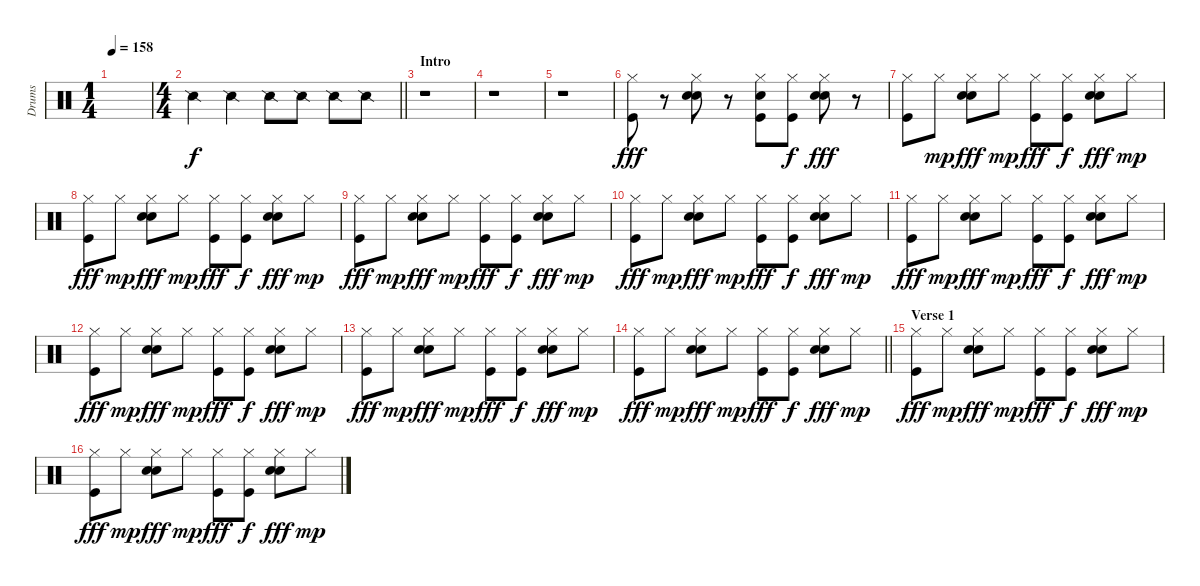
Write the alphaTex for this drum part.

\track ("Drums" "Drums") {instrument percussion}
\staff {score}
\articulation defaults
\ts (1 4)
\tempo 158
\clef neutral
\ks c
|
\ts (4 4)
\barLineRight lightlight "Snare (side stick) 2".4 "Snare (side stick) 2".4 "Snare (side stick) 2".8 "Snare (side stick) 2".8 "Snare (side stick) 2".8 "Snare (side stick) 2".8
|
\section ("" "Intro")
r.1 |
r.1 |
r.1 |
("Hi-Hat (closed)" "Kick (hit)").8{dy fff} r.8 ("Snare (hit) 2" "Hi-Hat (closed)" "Electric Snare (hit)").8 r.8 ("Hi-Hat (closed)" "Kick (hit)" "Electric Snare (hit)").8 ("Hi-Hat (closed)" "Kick (hit)").8{dy f} ("Snare (hit) 2" "Hi-Hat (closed)" "Electric Snare (hit)").8{dy fff} r.8 |
("Hi-Hat (closed)" "Kick (hit)").8 "Hi-Hat (closed)".8{dy mp} ("Snare (hit) 2" "Hi-Hat (closed)" "Electric Snare (hit)").8{dy fff} "Hi-Hat (closed)".8{dy mp} ("Hi-Hat (closed)" "Kick (hit)").8{dy fff} ("Hi-Hat (closed)" "Kick (hit)").8{dy f} ("Snare (hit) 2" "Hi-Hat (closed)" "Electric Snare (hit)").8{dy fff} "Hi-Hat (closed)".8{dy mp} |
("Hi-Hat (closed)" "Kick (hit)").8{dy fff} "Hi-Hat (closed)".8{dy mp} ("Snare (hit) 2" "Hi-Hat (closed)" "Electric Snare (hit)").8{dy fff} "Hi-Hat (closed)".8{dy mp} ("Hi-Hat (closed)" "Kick (hit)").8{dy fff} ("Hi-Hat (closed)" "Kick (hit)").8{dy f} ("Snare (hit) 2" "Hi-Hat (closed)" "Electric Snare (hit)").8{dy fff} "Hi-Hat (closed)".8{dy mp} |
("Hi-Hat (closed)" "Kick (hit)").8{dy fff} "Hi-Hat (closed)".8{dy mp} ("Snare (hit) 2" "Hi-Hat (closed)" "Electric Snare (hit)").8{dy fff} "Hi-Hat (closed)".8{dy mp} ("Hi-Hat (closed)" "Kick (hit)").8{dy fff} ("Hi-Hat (closed)" "Kick (hit)").8{dy f} ("Snare (hit) 2" "Hi-Hat (closed)" "Electric Snare (hit)").8{dy fff} "Hi-Hat (closed)".8{dy mp} |
("Hi-Hat (closed)" "Kick (hit)").8{dy fff} "Hi-Hat (closed)".8{dy mp} ("Snare (hit) 2" "Hi-Hat (closed)" "Electric Snare (hit)").8{dy fff} "Hi-Hat (closed)".8{dy mp} ("Hi-Hat (closed)" "Kick (hit)").8{dy fff} ("Hi-Hat (closed)" "Kick (hit)").8{dy f} ("Snare (hit) 2" "Hi-Hat (closed)" "Electric Snare (hit)").8{dy fff} "Hi-Hat (closed)".8{dy mp} |
("Hi-Hat (closed)" "Kick (hit)").8{dy fff} "Hi-Hat (closed)".8{dy mp} ("Snare (hit) 2" "Hi-Hat (closed)" "Electric Snare (hit)").8{dy fff} "Hi-Hat (closed)".8{dy mp} ("Hi-Hat (closed)" "Kick (hit)").8{dy fff} ("Hi-Hat (closed)" "Kick (hit)").8{dy f} ("Snare (hit) 2" "Hi-Hat (closed)" "Electric Snare (hit)").8{dy fff} "Hi-Hat (closed)".8{dy mp} |
("Hi-Hat (closed)" "Kick (hit)").8{dy fff} "Hi-Hat (closed)".8{dy mp} ("Snare (hit) 2" "Hi-Hat (closed)" "Electric Snare (hit)").8{dy fff} "Hi-Hat (closed)".8{dy mp} ("Hi-Hat (closed)" "Kick (hit)").8{dy fff} ("Hi-Hat (closed)" "Kick (hit)").8{dy f} ("Snare (hit) 2" "Hi-Hat (closed)" "Electric Snare (hit)").8{dy fff} "Hi-Hat (closed)".8{dy mp} |
("Hi-Hat (closed)" "Kick (hit)").8{dy fff} "Hi-Hat (closed)".8{dy mp} ("Snare (hit) 2" "Hi-Hat (closed)" "Electric Snare (hit)").8{dy fff} "Hi-Hat (closed)".8{dy mp} ("Hi-Hat (closed)" "Kick (hit)").8{dy fff} ("Hi-Hat (closed)" "Kick (hit)").8{dy f} ("Snare (hit) 2" "Hi-Hat (closed)" "Electric Snare (hit)").8{dy fff} "Hi-Hat (closed)".8{dy mp} |
\barLineRight lightlight
("Hi-Hat (closed)" "Kick (hit)").8{dy fff} "Hi-Hat (closed)".8{dy mp} ("Snare (hit) 2" "Hi-Hat (closed)" "Electric Snare (hit)").8{dy fff} "Hi-Hat (closed)".8{dy mp} ("Hi-Hat (closed)" "Kick (hit)").8{dy fff} ("Hi-Hat (closed)" "Kick (hit)").8{dy f} ("Snare (hit) 2" "Hi-Hat (closed)" "Electric Snare (hit)").8{dy fff} "Hi-Hat (closed)".8{dy mp} |
\section ("" "Verse 1")
("Hi-Hat (closed)" "Kick (hit)").8{dy fff} "Hi-Hat (closed)".8{dy mp} ("Snare (hit) 2" "Hi-Hat (closed)" "Electric Snare (hit)").8{dy fff} "Hi-Hat (closed)".8{dy mp} ("Hi-Hat (closed)" "Kick (hit)").8{dy fff} ("Hi-Hat (closed)" "Kick (hit)").8{dy f} ("Snare (hit) 2" "Hi-Hat (closed)" "Electric Snare (hit)").8{dy fff} "Hi-Hat (closed)".8{dy mp} |
("Hi-Hat (closed)" "Kick (hit)").8{dy fff} "Hi-Hat (closed)".8{dy mp} ("Snare (hit) 2" "Hi-Hat (closed)" "Electric Snare (hit)").8{dy fff} "Hi-Hat (closed)".8{dy mp} ("Hi-Hat (closed)" "Kick (hit)").8{dy fff} ("Hi-Hat (closed)" "Kick (hit)").8{dy f} ("Snare (hit) 2" "Hi-Hat (closed)" "Electric Snare (hit)").8{dy fff} "Hi-Hat (closed)".8{dy mp}
